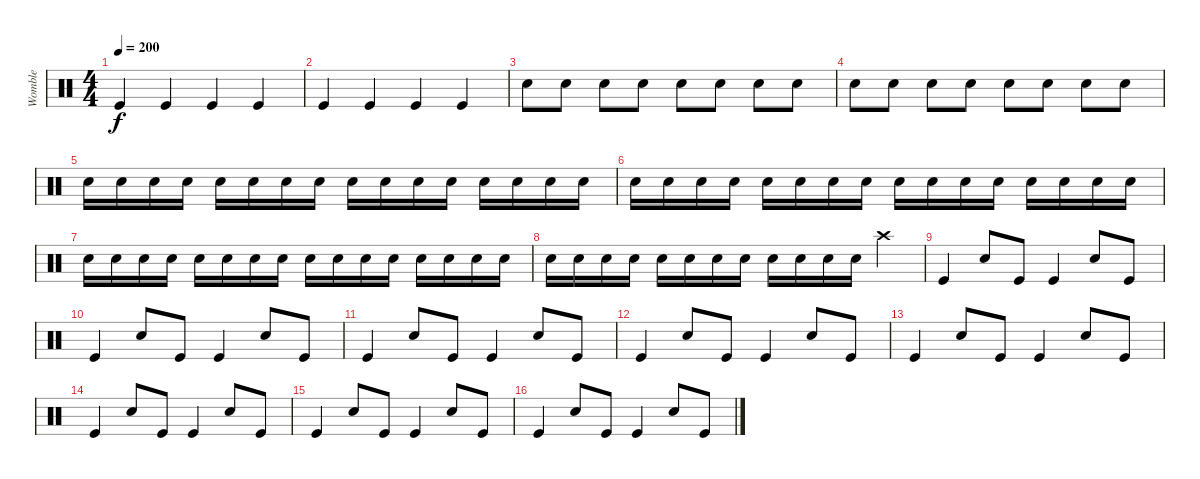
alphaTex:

\track ("Womble" "Womble") {instrument percussion}
\staff {score}
\articulation defaults
\ts (4 4)
\tempo 200
\clef neutral
\ks c "Kick (hit)".4{dy f} "Kick (hit)".4 "Kick (hit)".4 "Kick (hit)".4
|
"Kick (hit)".4 "Kick (hit)".4 "Kick (hit)".4 "Kick (hit)".4 |
"Snare (hit) 2".8 "Snare (hit) 2".8 "Snare (hit) 2".8 "Snare (hit) 2".8 "Snare (hit) 2".8 "Snare (hit) 2".8 "Snare (hit) 2".8 "Snare (hit) 2".8 |
"Snare (hit) 2".8 "Snare (hit) 2".8 "Snare (hit) 2".8 "Snare (hit) 2".8 "Snare (hit) 2".8 "Snare (hit) 2".8 "Snare (hit) 2".8 "Snare (hit) 2".8 |
"Snare (hit) 2".16 "Snare (hit) 2".16 "Snare (hit) 2".16 "Snare (hit) 2".16 "Snare (hit) 2".16 "Snare (hit) 2".16 "Snare (hit) 2".16 "Snare (hit) 2".16 "Snare (hit) 2".16 "Snare (hit) 2".16 "Snare (hit) 2".16 "Snare (hit) 2".16 "Snare (hit) 2".16 "Snare (hit) 2".16 "Snare (hit) 2".16 "Snare (hit) 2".16 |
"Snare (hit) 2".16 "Snare (hit) 2".16 "Snare (hit) 2".16 "Snare (hit) 2".16 "Snare (hit) 2".16 "Snare (hit) 2".16 "Snare (hit) 2".16 "Snare (hit) 2".16 "Snare (hit) 2".16 "Snare (hit) 2".16 "Snare (hit) 2".16 "Snare (hit) 2".16 "Snare (hit) 2".16 "Snare (hit) 2".16 "Snare (hit) 2".16 "Snare (hit) 2".16 |
"Snare (hit) 2".16 "Snare (hit) 2".16 "Snare (hit) 2".16 "Snare (hit) 2".16 "Snare (hit) 2".16 "Snare (hit) 2".16 "Snare (hit) 2".16 "Snare (hit) 2".16 "Snare (hit) 2".16 "Snare (hit) 2".16 "Snare (hit) 2".16 "Snare (hit) 2".16 "Snare (hit) 2".16 "Snare (hit) 2".16 "Snare (hit) 2".16 "Snare (hit) 2".16 |
"Snare (hit) 2".16 "Snare (hit) 2".16 "Snare (hit) 2".16 "Snare (hit) 2".16 "Snare (hit) 2".16 "Snare (hit) 2".16 "Snare (hit) 2".16 "Snare (hit) 2".16 "Snare (hit) 2".16 "Snare (hit) 2".16 "Snare (hit) 2".16 "Snare (hit) 2".16 "Crash high (hit)".4 |
"Kick (hit)".4 "Snare (hit) 2".8 "Kick (hit)".8 "Kick (hit)".4 "Electric Snare (hit)".8 "Kick (hit)".8 |
"Kick (hit)".4 "Snare (hit) 2".8 "Kick (hit)".8 "Kick (hit)".4 "Electric Snare (hit)".8 "Kick (hit)".8 |
"Kick (hit)".4 "Snare (hit) 2".8 "Kick (hit)".8 "Kick (hit)".4 "Electric Snare (hit)".8 "Kick (hit)".8 |
"Kick (hit)".4 "Snare (hit) 2".8 "Kick (hit)".8 "Kick (hit)".4 "Electric Snare (hit)".8 "Kick (hit)".8 |
"Kick (hit)".4 "Snare (hit) 2".8 "Kick (hit)".8 "Kick (hit)".4 "Electric Snare (hit)".8 "Kick (hit)".8 |
"Kick (hit)".4 "Snare (hit) 2".8 "Kick (hit)".8 "Kick (hit)".4 "Electric Snare (hit)".8 "Kick (hit)".8 |
"Kick (hit)".4 "Snare (hit) 2".8 "Kick (hit)".8 "Kick (hit)".4 "Electric Snare (hit)".8 "Kick (hit)".8 |
"Kick (hit)".4 "Snare (hit) 2".8 "Kick (hit)".8 "Kick (hit)".4 "Electric Snare (hit)".8 "Kick (hit)".8
